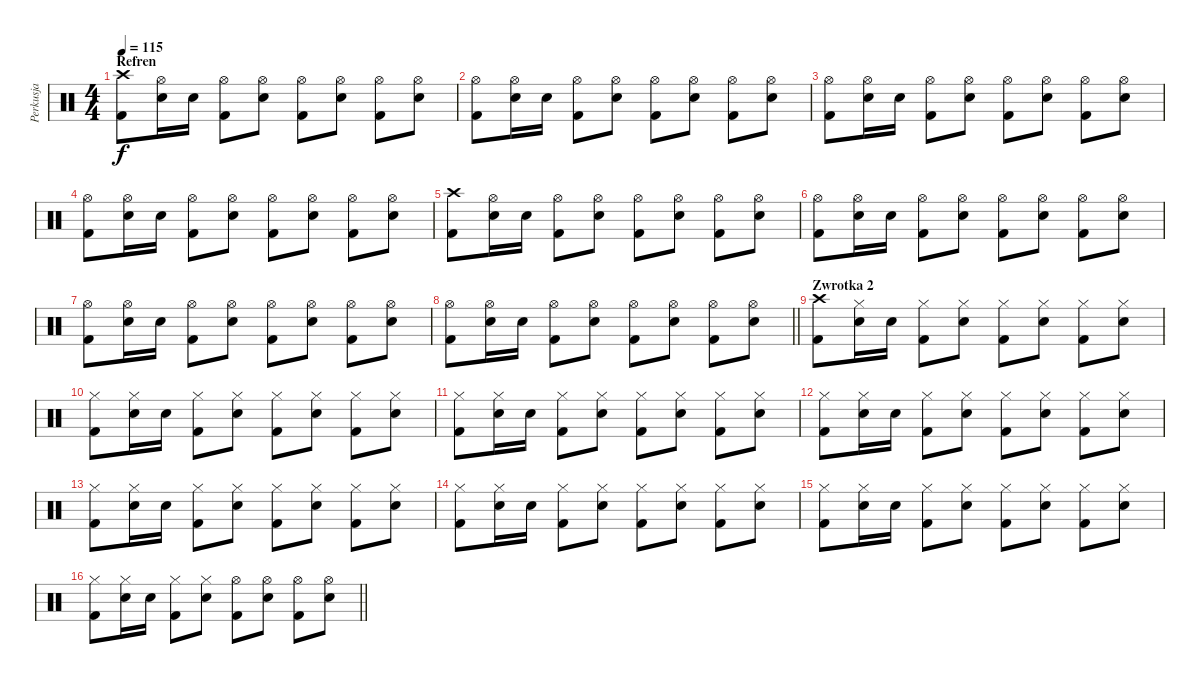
\track ("Perkusja" "Perkusja") {instrument percussion}
\staff {score}
\articulation defaults
\ts (4 4)
\section ("" "Refren")
\tempo 115
\clef neutral
\ks c
("Crash high (hit)" "Kick (hit) 2").8{dy f} ("Hi-Hat (open)" "Snare (hit) 2").16 "Snare (hit) 2".16 ("Hi-Hat (open)" "Kick (hit) 2").8 ("Hi-Hat (open)" "Snare (hit) 2").8 ("Hi-Hat (open)" "Kick (hit) 2").8 ("Hi-Hat (open)" "Snare (hit) 2").8 ("Hi-Hat (open)" "Kick (hit) 2").8 ("Hi-Hat (open)" "Snare (hit) 2").8 |
("Hi-Hat (open)" "Kick (hit) 2").8 ("Hi-Hat (open)" "Snare (hit) 2").16 "Snare (hit) 2".16 ("Hi-Hat (open)" "Kick (hit) 2").8 ("Hi-Hat (open)" "Snare (hit) 2").8 ("Hi-Hat (open)" "Kick (hit) 2").8 ("Hi-Hat (open)" "Snare (hit) 2").8 ("Hi-Hat (open)" "Kick (hit) 2").8 ("Hi-Hat (open)" "Snare (hit) 2").8 |
("Hi-Hat (open)" "Kick (hit) 2").8 ("Hi-Hat (open)" "Snare (hit) 2").16 "Snare (hit) 2".16 ("Hi-Hat (open)" "Kick (hit) 2").8 ("Hi-Hat (open)" "Snare (hit) 2").8 ("Hi-Hat (open)" "Kick (hit) 2").8 ("Hi-Hat (open)" "Snare (hit) 2").8 ("Hi-Hat (open)" "Kick (hit) 2").8 ("Hi-Hat (open)" "Snare (hit) 2").8 |
("Hi-Hat (open)" "Kick (hit) 2").8 ("Hi-Hat (open)" "Snare (hit) 2").16 "Snare (hit) 2".16 ("Hi-Hat (open)" "Kick (hit) 2").8 ("Hi-Hat (open)" "Snare (hit) 2").8 ("Hi-Hat (open)" "Kick (hit) 2").8 ("Hi-Hat (open)" "Snare (hit) 2").8 ("Hi-Hat (open)" "Kick (hit) 2").8 ("Hi-Hat (open)" "Snare (hit) 2").8 |
("Crash high (hit)" "Kick (hit) 2").8 ("Hi-Hat (open)" "Snare (hit) 2").16 "Snare (hit) 2".16 ("Hi-Hat (open)" "Kick (hit) 2").8 ("Hi-Hat (open)" "Snare (hit) 2").8 ("Hi-Hat (open)" "Kick (hit) 2").8 ("Hi-Hat (open)" "Snare (hit) 2").8 ("Hi-Hat (open)" "Kick (hit) 2").8 ("Hi-Hat (open)" "Snare (hit) 2").8 |
("Hi-Hat (open)" "Kick (hit) 2").8 ("Hi-Hat (open)" "Snare (hit) 2").16 "Snare (hit) 2".16 ("Hi-Hat (open)" "Kick (hit) 2").8 ("Hi-Hat (open)" "Snare (hit) 2").8 ("Hi-Hat (open)" "Kick (hit) 2").8 ("Hi-Hat (open)" "Snare (hit) 2").8 ("Hi-Hat (open)" "Kick (hit) 2").8 ("Hi-Hat (open)" "Snare (hit) 2").8 |
("Hi-Hat (open)" "Kick (hit) 2").8 ("Hi-Hat (open)" "Snare (hit) 2").16 "Snare (hit) 2".16 ("Hi-Hat (open)" "Kick (hit) 2").8 ("Hi-Hat (open)" "Snare (hit) 2").8 ("Hi-Hat (open)" "Kick (hit) 2").8 ("Hi-Hat (open)" "Snare (hit) 2").8 ("Hi-Hat (open)" "Kick (hit) 2").8 ("Hi-Hat (open)" "Snare (hit) 2").8 |
\barLineRight lightlight
("Hi-Hat (open)" "Kick (hit) 2").8 ("Hi-Hat (open)" "Snare (hit) 2").16 "Snare (hit) 2".16 ("Hi-Hat (open)" "Kick (hit) 2").8 ("Hi-Hat (open)" "Snare (hit) 2").8 ("Hi-Hat (open)" "Kick (hit) 2").8 ("Hi-Hat (open)" "Snare (hit) 2").8 ("Hi-Hat (open)" "Kick (hit) 2").8 ("Hi-Hat (open)" "Snare (hit) 2").8 |
\section ("" "Zwrotka 2")
("Crash high (hit)" "Kick (hit) 2").8 ("Hi-Hat (closed)" "Snare (hit) 2").16 "Snare (hit) 2".16 ("Hi-Hat (closed)" "Kick (hit) 2").8 ("Hi-Hat (closed)" "Snare (hit) 2").8 ("Hi-Hat (closed)" "Kick (hit) 2").8 ("Hi-Hat (closed)" "Snare (hit) 2").8 ("Hi-Hat (closed)" "Kick (hit) 2").8 ("Hi-Hat (closed)" "Snare (hit) 2").8 |
("Hi-Hat (closed)" "Kick (hit) 2").8 ("Hi-Hat (closed)" "Snare (hit) 2").16 "Snare (hit) 2".16 ("Hi-Hat (closed)" "Kick (hit) 2").8 ("Hi-Hat (closed)" "Snare (hit) 2").8 ("Hi-Hat (closed)" "Kick (hit) 2").8 ("Hi-Hat (closed)" "Snare (hit) 2").8 ("Hi-Hat (closed)" "Kick (hit) 2").8 ("Hi-Hat (closed)" "Snare (hit) 2").8 |
("Hi-Hat (closed)" "Kick (hit) 2").8 ("Hi-Hat (closed)" "Snare (hit) 2").16 "Snare (hit) 2".16 ("Hi-Hat (closed)" "Kick (hit) 2").8 ("Hi-Hat (closed)" "Snare (hit) 2").8 ("Hi-Hat (closed)" "Kick (hit) 2").8 ("Hi-Hat (closed)" "Snare (hit) 2").8 ("Hi-Hat (closed)" "Kick (hit) 2").8 ("Hi-Hat (closed)" "Snare (hit) 2").8 |
("Hi-Hat (closed)" "Kick (hit) 2").8 ("Hi-Hat (closed)" "Snare (hit) 2").16 "Snare (hit) 2".16 ("Hi-Hat (closed)" "Kick (hit) 2").8 ("Hi-Hat (closed)" "Snare (hit) 2").8 ("Hi-Hat (closed)" "Kick (hit) 2").8 ("Hi-Hat (closed)" "Snare (hit) 2").8 ("Hi-Hat (closed)" "Kick (hit) 2").8 ("Hi-Hat (closed)" "Snare (hit) 2").8 |
("Hi-Hat (closed)" "Kick (hit) 2").8 ("Hi-Hat (closed)" "Snare (hit) 2").16 "Snare (hit) 2".16 ("Hi-Hat (closed)" "Kick (hit) 2").8 ("Hi-Hat (closed)" "Snare (hit) 2").8 ("Hi-Hat (closed)" "Kick (hit) 2").8 ("Hi-Hat (closed)" "Snare (hit) 2").8 ("Hi-Hat (closed)" "Kick (hit) 2").8 ("Hi-Hat (closed)" "Snare (hit) 2").8 |
("Hi-Hat (closed)" "Kick (hit) 2").8 ("Hi-Hat (closed)" "Snare (hit) 2").16 "Snare (hit) 2".16 ("Hi-Hat (closed)" "Kick (hit) 2").8 ("Hi-Hat (closed)" "Snare (hit) 2").8 ("Hi-Hat (closed)" "Kick (hit) 2").8 ("Hi-Hat (closed)" "Snare (hit) 2").8 ("Hi-Hat (closed)" "Kick (hit) 2").8 ("Hi-Hat (closed)" "Snare (hit) 2").8 |
("Hi-Hat (closed)" "Kick (hit) 2").8 ("Hi-Hat (closed)" "Snare (hit) 2").16 "Snare (hit) 2".16 ("Hi-Hat (closed)" "Kick (hit) 2").8 ("Hi-Hat (closed)" "Snare (hit) 2").8 ("Hi-Hat (closed)" "Kick (hit) 2").8 ("Hi-Hat (closed)" "Snare (hit) 2").8 ("Hi-Hat (closed)" "Kick (hit) 2").8 ("Hi-Hat (closed)" "Snare (hit) 2").8 |
\barLineRight lightlight
("Hi-Hat (closed)" "Kick (hit) 2").8 ("Hi-Hat (closed)" "Snare (hit) 2").16 "Snare (hit) 2".16 ("Hi-Hat (closed)" "Kick (hit) 2").8 ("Hi-Hat (closed)" "Snare (hit) 2").8 ("Hi-Hat (open)" "Kick (hit) 2").8 ("Hi-Hat (open)" "Snare (hit) 2").8 ("Hi-Hat (open)" "Kick (hit) 2").8 ("Hi-Hat (open)" "Snare (hit) 2").8
